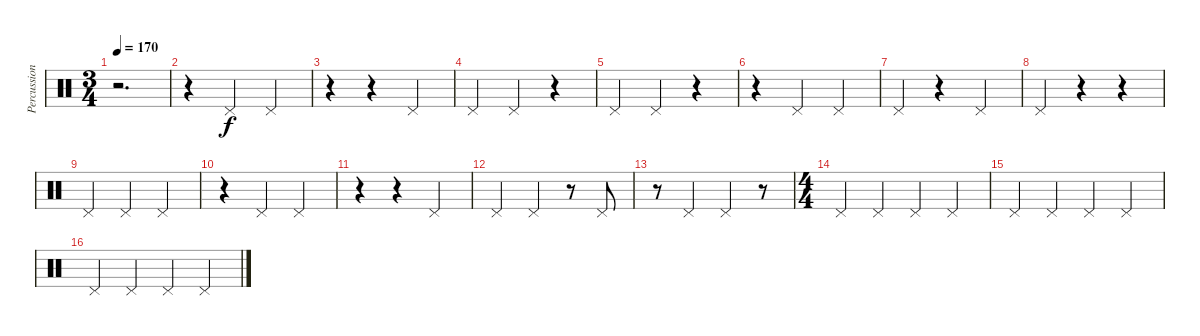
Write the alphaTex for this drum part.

\track ("Percussion" "Percussion") {instrument percussion}
\staff {score}
\articulation defaults
\ts (3 4)
\tempo 170
\clef neutral
\ks c
r.2{d dy f} |
r.4 "Pedal Hi-Hat (hit)".4 "Pedal Hi-Hat (hit)".4 |
r.4 r.4 "Pedal Hi-Hat (hit)".4 |
"Pedal Hi-Hat (hit)".4 "Pedal Hi-Hat (hit)".4 r.4 |
"Pedal Hi-Hat (hit)".4 "Pedal Hi-Hat (hit)".4 r.4 |
r.4 "Pedal Hi-Hat (hit)".4 "Pedal Hi-Hat (hit)".4 |
"Pedal Hi-Hat (hit)".4 r.4 "Pedal Hi-Hat (hit)".4 |
"Pedal Hi-Hat (hit)".4 r.4 r.4 |
"Pedal Hi-Hat (hit)".4 "Pedal Hi-Hat (hit)".4 "Pedal Hi-Hat (hit)".4 |
r.4 "Pedal Hi-Hat (hit)".4 "Pedal Hi-Hat (hit)".4 |
r.4 r.4 "Pedal Hi-Hat (hit)".4 |
"Pedal Hi-Hat (hit)".4 "Pedal Hi-Hat (hit)".4 r.8 "Pedal Hi-Hat (hit)".8 |
r.8 "Pedal Hi-Hat (hit)".4 "Pedal Hi-Hat (hit)".4 r.8 |
\ts (4 4)
"Pedal Hi-Hat (hit)".4 "Pedal Hi-Hat (hit)".4 "Pedal Hi-Hat (hit)".4 "Pedal Hi-Hat (hit)".4 |
"Pedal Hi-Hat (hit)".4 "Pedal Hi-Hat (hit)".4 "Pedal Hi-Hat (hit)".4 "Pedal Hi-Hat (hit)".4 |
"Pedal Hi-Hat (hit)".4 "Pedal Hi-Hat (hit)".4 "Pedal Hi-Hat (hit)".4 "Pedal Hi-Hat (hit)".4
